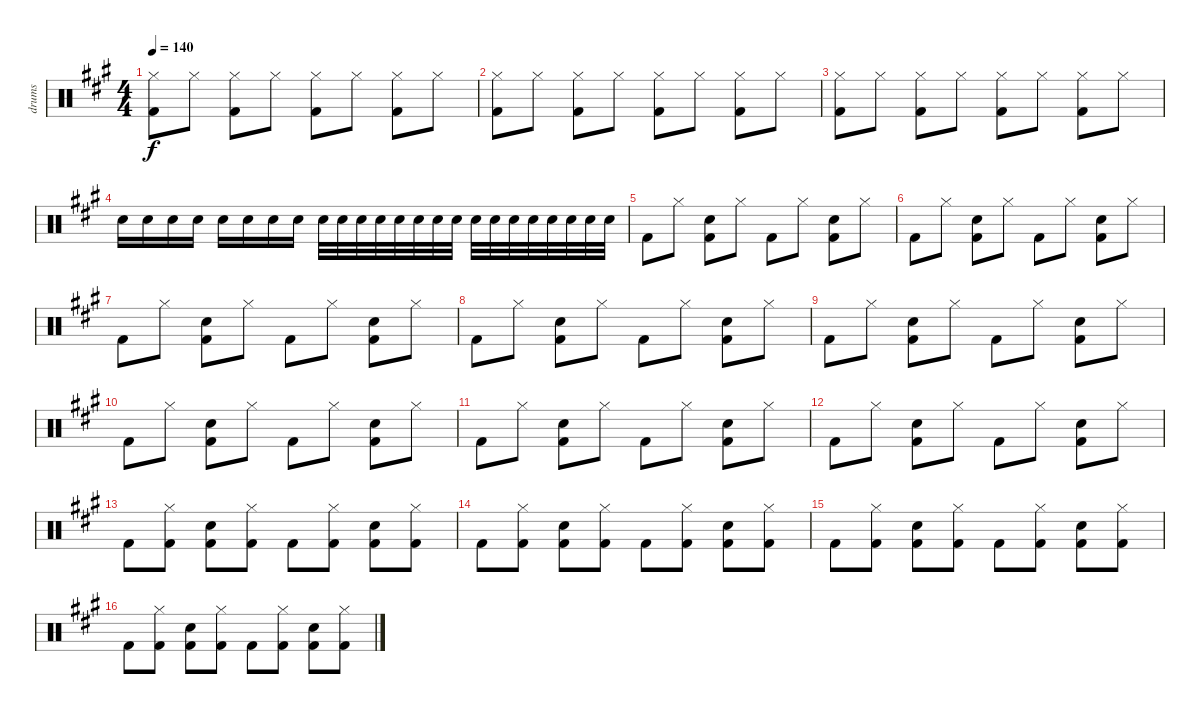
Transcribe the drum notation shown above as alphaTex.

\track ("drums" "drums") {instrument percussion}
\staff {score}
\articulation defaults
\ts (4 4)
\tempo 140
\clef neutral
\ks f#minor
("Hi-Hat (closed)" "Kick (hit) 2").8{dy f} "Hi-Hat (closed)".8 ("Hi-Hat (closed)" "Kick (hit) 2").8 "Hi-Hat (closed)".8 ("Hi-Hat (closed)" "Kick (hit) 2").8 "Hi-Hat (closed)".8 ("Hi-Hat (closed)" "Kick (hit) 2").8 "Hi-Hat (closed)".8 |
("Hi-Hat (closed)" "Kick (hit) 2").8 "Hi-Hat (closed)".8 ("Hi-Hat (closed)" "Kick (hit) 2").8 "Hi-Hat (closed)".8 ("Hi-Hat (closed)" "Kick (hit) 2").8 "Hi-Hat (closed)".8 ("Hi-Hat (closed)" "Kick (hit) 2").8 "Hi-Hat (closed)".8 |
("Hi-Hat (closed)" "Kick (hit) 2").8 "Hi-Hat (closed)".8 ("Hi-Hat (closed)" "Kick (hit) 2").8 "Hi-Hat (closed)".8 ("Hi-Hat (closed)" "Kick (hit) 2").8 "Hi-Hat (closed)".8 ("Hi-Hat (closed)" "Kick (hit) 2").8 "Hi-Hat (closed)".8 |
"Electric Snare (hit)".16 "Electric Snare (hit)".16 "Electric Snare (hit)".16 "Electric Snare (hit)".16 "Electric Snare (hit)".16 "Electric Snare (hit)".16 "Electric Snare (hit)".16 "Electric Snare (hit)".16 "Electric Snare (hit)".32 "Electric Snare (hit)".32 "Electric Snare (hit)".32 "Electric Snare (hit)".32 "Electric Snare (hit)".32 "Electric Snare (hit)".32 "Electric Snare (hit)".32 "Electric Snare (hit)".32 "Electric Snare (hit)".32 "Electric Snare (hit)".32 "Electric Snare (hit)".32 "Electric Snare (hit)".32 "Electric Snare (hit)".32 "Electric Snare (hit)".32 "Electric Snare (hit)".32 "Electric Snare (hit)".32 |
"Kick (hit) 2".8 "Hi-Hat (closed)".8 ("Electric Snare (hit)" "Kick (hit) 2").8 "Hi-Hat (closed)".8 "Kick (hit) 2".8 "Hi-Hat (closed)".8 ("Electric Snare (hit)" "Kick (hit) 2").8 "Hi-Hat (closed)".8 |
"Kick (hit) 2".8 "Hi-Hat (closed)".8 ("Electric Snare (hit)" "Kick (hit) 2").8 "Hi-Hat (closed)".8 "Kick (hit) 2".8 "Hi-Hat (closed)".8 ("Electric Snare (hit)" "Kick (hit) 2").8 "Hi-Hat (closed)".8 |
"Kick (hit) 2".8 "Hi-Hat (closed)".8 ("Electric Snare (hit)" "Kick (hit) 2").8 "Hi-Hat (closed)".8 "Kick (hit) 2".8 "Hi-Hat (closed)".8 ("Electric Snare (hit)" "Kick (hit) 2").8 "Hi-Hat (closed)".8 |
"Kick (hit) 2".8 "Hi-Hat (closed)".8 ("Electric Snare (hit)" "Kick (hit) 2").8 "Hi-Hat (closed)".8 "Kick (hit) 2".8 "Hi-Hat (closed)".8 ("Electric Snare (hit)" "Kick (hit) 2").8 "Hi-Hat (closed)".8 |
"Kick (hit) 2".8 "Hi-Hat (closed)".8 ("Electric Snare (hit)" "Kick (hit) 2").8 "Hi-Hat (closed)".8 "Kick (hit) 2".8 "Hi-Hat (closed)".8 ("Electric Snare (hit)" "Kick (hit) 2").8 "Hi-Hat (closed)".8 |
"Kick (hit) 2".8 "Hi-Hat (closed)".8 ("Electric Snare (hit)" "Kick (hit) 2").8 "Hi-Hat (closed)".8 "Kick (hit) 2".8 "Hi-Hat (closed)".8 ("Electric Snare (hit)" "Kick (hit) 2").8 "Hi-Hat (closed)".8 |
"Kick (hit) 2".8 "Hi-Hat (closed)".8 ("Electric Snare (hit)" "Kick (hit) 2").8 "Hi-Hat (closed)".8 "Kick (hit) 2".8 "Hi-Hat (closed)".8 ("Electric Snare (hit)" "Kick (hit) 2").8 "Hi-Hat (closed)".8 |
"Kick (hit) 2".8 "Hi-Hat (closed)".8 ("Electric Snare (hit)" "Kick (hit) 2").8 "Hi-Hat (closed)".8 "Kick (hit) 2".8 "Hi-Hat (closed)".8 ("Electric Snare (hit)" "Kick (hit) 2").8 "Hi-Hat (closed)".8 |
"Kick (hit) 2".8 ("Hi-Hat (closed)" "Kick (hit) 2").8 ("Electric Snare (hit)" "Kick (hit) 2").8 ("Hi-Hat (closed)" "Kick (hit) 2").8 "Kick (hit) 2".8 ("Hi-Hat (closed)" "Kick (hit) 2").8 ("Electric Snare (hit)" "Kick (hit) 2").8 ("Hi-Hat (closed)" "Kick (hit) 2").8 |
"Kick (hit) 2".8 ("Hi-Hat (closed)" "Kick (hit) 2").8 ("Electric Snare (hit)" "Kick (hit) 2").8 ("Hi-Hat (closed)" "Kick (hit) 2").8 "Kick (hit) 2".8 ("Hi-Hat (closed)" "Kick (hit) 2").8 ("Electric Snare (hit)" "Kick (hit) 2").8 ("Hi-Hat (closed)" "Kick (hit) 2").8 |
"Kick (hit) 2".8 ("Hi-Hat (closed)" "Kick (hit) 2").8 ("Electric Snare (hit)" "Kick (hit) 2").8 ("Hi-Hat (closed)" "Kick (hit) 2").8 "Kick (hit) 2".8 ("Hi-Hat (closed)" "Kick (hit) 2").8 ("Electric Snare (hit)" "Kick (hit) 2").8 ("Hi-Hat (closed)" "Kick (hit) 2").8 |
"Kick (hit) 2".8 ("Hi-Hat (closed)" "Kick (hit) 2").8 ("Electric Snare (hit)" "Kick (hit) 2").8 ("Hi-Hat (closed)" "Kick (hit) 2").8 "Kick (hit) 2".8 ("Hi-Hat (closed)" "Kick (hit) 2").8 ("Electric Snare (hit)" "Kick (hit) 2").8 ("Hi-Hat (closed)" "Kick (hit) 2").8
